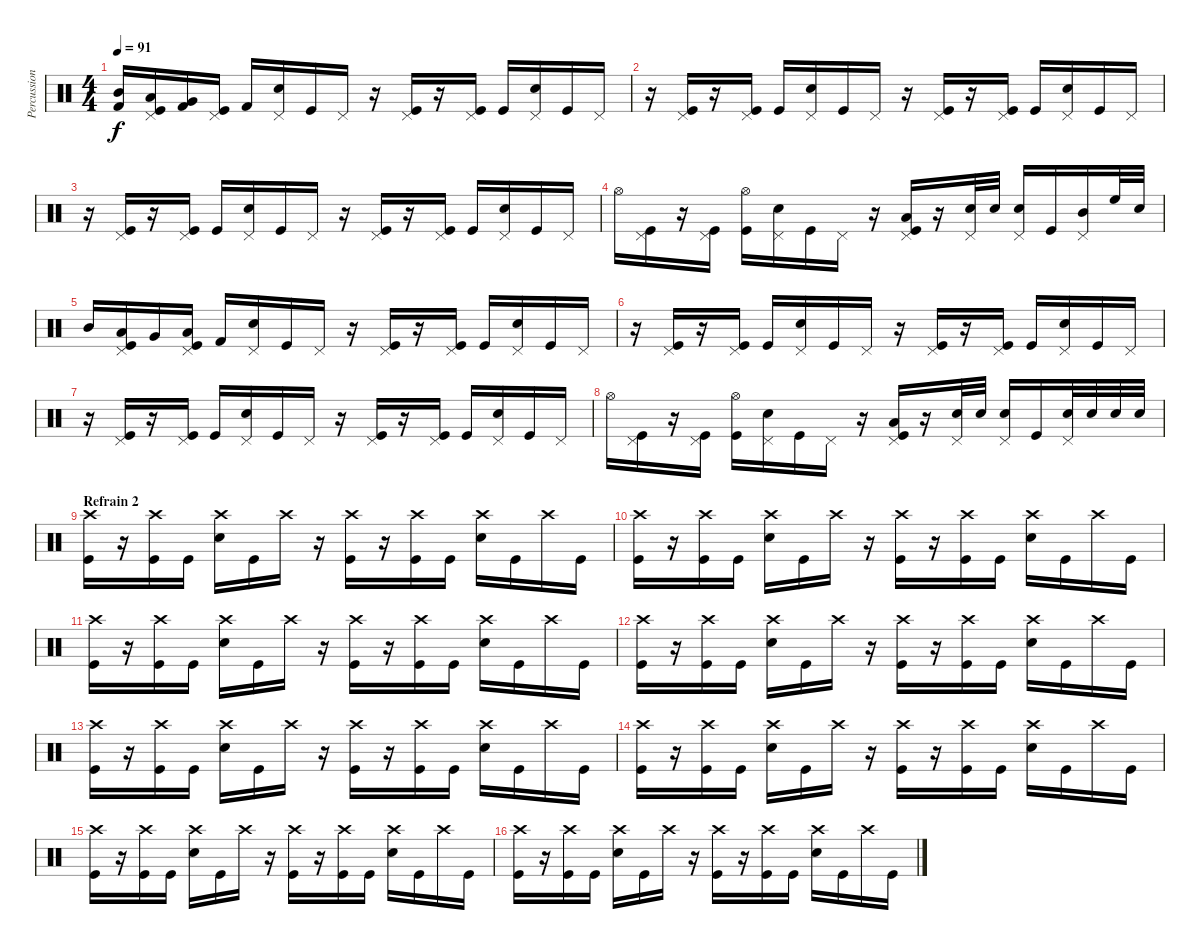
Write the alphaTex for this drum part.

\track ("Percussions (Nejo)" "Percussion") {instrument percussion}
\staff {score}
\articulation defaults
\ts (4 4)
\tempo 91
\clef neutral
\ks c
("Mid Tom (hit)" "Kick (hit) 2").16{dy f} ("Pedal Hi-Hat (hit)" "Low Tom (hit)" "Kick (hit)").16 ("Very Low Tom (hit)" "Kick (hit) 2").16 ("Pedal Hi-Hat (hit)" "Kick (hit)").16 "Kick (hit) 2".16 ("Pedal Hi-Hat (hit)" "Electric Snare (hit)").16 "Kick (hit)".16 "Pedal Hi-Hat (hit)".16 r.16 ("Pedal Hi-Hat (hit)" "Kick (hit)").16 r.16 ("Pedal Hi-Hat (hit)" "Kick (hit)").16 "Kick (hit)".16 ("Pedal Hi-Hat (hit)" "Electric Snare (hit)").16 "Kick (hit)".16 "Pedal Hi-Hat (hit)".16 |
r.16 ("Pedal Hi-Hat (hit)" "Kick (hit)").16 r.16 ("Pedal Hi-Hat (hit)" "Kick (hit)").16 "Kick (hit)".16 ("Pedal Hi-Hat (hit)" "Electric Snare (hit)").16 "Kick (hit)".16 "Pedal Hi-Hat (hit)".16 r.16 ("Pedal Hi-Hat (hit)" "Kick (hit)").16 r.16 ("Pedal Hi-Hat (hit)" "Kick (hit)").16 "Kick (hit)".16 ("Pedal Hi-Hat (hit)" "Electric Snare (hit)").16 "Kick (hit)".16 "Pedal Hi-Hat (hit)".16 |
r.16 ("Pedal Hi-Hat (hit)" "Kick (hit)").16 r.16 ("Pedal Hi-Hat (hit)" "Kick (hit)").16 "Kick (hit)".16 ("Pedal Hi-Hat (hit)" "Electric Snare (hit)").16 "Kick (hit)".16 "Pedal Hi-Hat (hit)".16 r.16 ("Pedal Hi-Hat (hit)" "Kick (hit)").16 r.16 ("Pedal Hi-Hat (hit)" "Kick (hit)").16 "Kick (hit)".16 ("Pedal Hi-Hat (hit)" "Electric Snare (hit)").16 "Kick (hit)".16 "Pedal Hi-Hat (hit)".16 |
"Hi-Hat (open)".16 ("Pedal Hi-Hat (hit)" "Kick (hit)").16 r.16 ("Pedal Hi-Hat (hit)" "Kick (hit)").16 ("Hi-Hat (open)" "Kick (hit)").16 ("Pedal Hi-Hat (hit)" "Electric Snare (hit)").16 "Kick (hit)".16 "Pedal Hi-Hat (hit)".16 r.16 ("Pedal Hi-Hat (hit)" "Low Tom (hit)" "Kick (hit)").16 r.16 ("Pedal Hi-Hat (hit)" "Electric Snare (hit)").32 "Electric Snare (hit)".32 ("Pedal Hi-Hat (hit)" "Electric Snare (hit)").16 "Kick (hit)".16 ("Pedal Hi-Hat (hit)" "Mid Tom (hit)").16 "High Floor Tom (hit)".32 "Snare (hit) 2".32 |
"Mid Tom (hit)".16 ("Pedal Hi-Hat (hit)" "Low Tom (hit)" "Kick (hit)").16 "Very Low Tom (hit)".16 ("Pedal Hi-Hat (hit)" "Low Floor Tom (hit)" "Kick (hit)").16 "Kick (hit) 2".16 ("Pedal Hi-Hat (hit)" "Electric Snare (hit)").16 "Kick (hit)".16 "Pedal Hi-Hat (hit)".16 r.16 ("Pedal Hi-Hat (hit)" "Kick (hit)").16 r.16 ("Pedal Hi-Hat (hit)" "Kick (hit)").16 "Kick (hit)".16 ("Pedal Hi-Hat (hit)" "Electric Snare (hit)").16 "Kick (hit)".16 "Pedal Hi-Hat (hit)".16 |
r.16 ("Pedal Hi-Hat (hit)" "Kick (hit)").16 r.16 ("Pedal Hi-Hat (hit)" "Kick (hit)").16 "Kick (hit)".16 ("Pedal Hi-Hat (hit)" "Electric Snare (hit)").16 "Kick (hit)".16 "Pedal Hi-Hat (hit)".16 r.16 ("Pedal Hi-Hat (hit)" "Kick (hit)").16 r.16 ("Pedal Hi-Hat (hit)" "Kick (hit)").16 "Kick (hit)".16 ("Pedal Hi-Hat (hit)" "Electric Snare (hit)").16 "Kick (hit)".16 "Pedal Hi-Hat (hit)".16 |
r.16 ("Pedal Hi-Hat (hit)" "Kick (hit)").16 r.16 ("Pedal Hi-Hat (hit)" "Kick (hit)").16 "Kick (hit)".16 ("Pedal Hi-Hat (hit)" "Electric Snare (hit)").16 "Kick (hit)".16 "Pedal Hi-Hat (hit)".16 r.16 ("Pedal Hi-Hat (hit)" "Kick (hit)").16 r.16 ("Pedal Hi-Hat (hit)" "Kick (hit)").16 "Kick (hit)".16 ("Pedal Hi-Hat (hit)" "Electric Snare (hit)").16 "Kick (hit)".16 "Pedal Hi-Hat (hit)".16 |
"Hi-Hat (open)".16 ("Pedal Hi-Hat (hit)" "Kick (hit)").16 r.16 ("Pedal Hi-Hat (hit)" "Kick (hit)").16 ("Hi-Hat (open)" "Kick (hit)").16 ("Pedal Hi-Hat (hit)" "Electric Snare (hit)").16 "Kick (hit)".16 "Pedal Hi-Hat (hit)".16 r.16 ("Pedal Hi-Hat (hit)" "Low Tom (hit)" "Kick (hit)").16 r.16 ("Pedal Hi-Hat (hit)" "Electric Snare (hit)").32 "Electric Snare (hit)".32 ("Pedal Hi-Hat (hit)" "Electric Snare (hit)").16 "Kick (hit)".16 ("Pedal Hi-Hat (hit)" "Electric Snare (hit)").32 "Electric Snare (hit)".32 "Electric Snare (hit)".32 "Electric Snare (hit)".32 |
\section ("" "Refrain 2")
("Crash high (hit)" "Kick (hit)").16 r.16 ("Crash high (hit)" "Kick (hit)").16 "Kick (hit)".16 ("Crash high (hit)" "Electric Snare (hit)").16 "Kick (hit)".16 "Crash high (hit)".16 r.16 ("Crash high (hit)" "Kick (hit)").16 r.16 ("Crash high (hit)" "Kick (hit)").16 "Kick (hit)".16 ("Crash high (hit)" "Electric Snare (hit)").16 "Kick (hit)".16 "Crash high (hit)".16 "Kick (hit)".16 |
("Crash high (hit)" "Kick (hit)").16 r.16 ("Crash high (hit)" "Kick (hit)").16 "Kick (hit)".16 ("Crash high (hit)" "Electric Snare (hit)").16 "Kick (hit)".16 "Crash high (hit)".16 r.16 ("Crash high (hit)" "Kick (hit)").16 r.16 ("Crash high (hit)" "Kick (hit)").16 "Kick (hit)".16 ("Crash high (hit)" "Electric Snare (hit)").16 "Kick (hit)".16 "Crash high (hit)".16 "Kick (hit)".16 |
("Crash high (hit)" "Kick (hit)").16 r.16 ("Crash high (hit)" "Kick (hit)").16 "Kick (hit)".16 ("Crash high (hit)" "Electric Snare (hit)").16 "Kick (hit)".16 "Crash high (hit)".16 r.16 ("Crash high (hit)" "Kick (hit)").16 r.16 ("Crash high (hit)" "Kick (hit)").16 "Kick (hit)".16 ("Crash high (hit)" "Electric Snare (hit)").16 "Kick (hit)".16 "Crash high (hit)".16 "Kick (hit)".16 |
("Crash high (hit)" "Kick (hit)").16 r.16 ("Crash high (hit)" "Kick (hit)").16 "Kick (hit)".16 ("Crash high (hit)" "Electric Snare (hit)").16 "Kick (hit)".16 "Crash high (hit)".16 r.16 ("Crash high (hit)" "Kick (hit)").16 r.16 ("Crash high (hit)" "Kick (hit)").16 "Kick (hit)".16 ("Crash high (hit)" "Electric Snare (hit)").16 "Kick (hit)".16 "Crash high (hit)".16 "Kick (hit)".16 |
("Crash high (hit)" "Kick (hit)").16 r.16 ("Crash high (hit)" "Kick (hit)").16 "Kick (hit)".16 ("Crash high (hit)" "Electric Snare (hit)").16 "Kick (hit)".16 "Crash high (hit)".16 r.16 ("Crash high (hit)" "Kick (hit)").16 r.16 ("Crash high (hit)" "Kick (hit)").16 "Kick (hit)".16 ("Crash high (hit)" "Electric Snare (hit)").16 "Kick (hit)".16 "Crash high (hit)".16 "Kick (hit)".16 |
("Crash high (hit)" "Kick (hit)").16 r.16 ("Crash high (hit)" "Kick (hit)").16 "Kick (hit)".16 ("Crash high (hit)" "Electric Snare (hit)").16 "Kick (hit)".16 "Crash high (hit)".16 r.16 ("Crash high (hit)" "Kick (hit)").16 r.16 ("Crash high (hit)" "Kick (hit)").16 "Kick (hit)".16 ("Crash high (hit)" "Electric Snare (hit)").16 "Kick (hit)".16 "Crash high (hit)".16 "Kick (hit)".16 |
("Crash high (hit)" "Kick (hit)").16 r.16 ("Crash high (hit)" "Kick (hit)").16 "Kick (hit)".16 ("Crash high (hit)" "Electric Snare (hit)").16 "Kick (hit)".16 "Crash high (hit)".16 r.16 ("Crash high (hit)" "Kick (hit)").16 r.16 ("Crash high (hit)" "Kick (hit)").16 "Kick (hit)".16 ("Crash high (hit)" "Electric Snare (hit)").16 "Kick (hit)".16 "Crash high (hit)".16 "Kick (hit)".16 |
("Crash high (hit)" "Kick (hit)").16 r.16 ("Crash high (hit)" "Kick (hit)").16 "Kick (hit)".16 ("Crash high (hit)" "Electric Snare (hit)").16 "Kick (hit)".16 "Crash high (hit)".16 r.16 ("Crash high (hit)" "Kick (hit)").16 r.16 ("Crash high (hit)" "Kick (hit)").16 "Kick (hit)".16 ("Crash high (hit)" "Electric Snare (hit)").16 "Kick (hit)".16 "Crash high (hit)".16 "Kick (hit)".16
